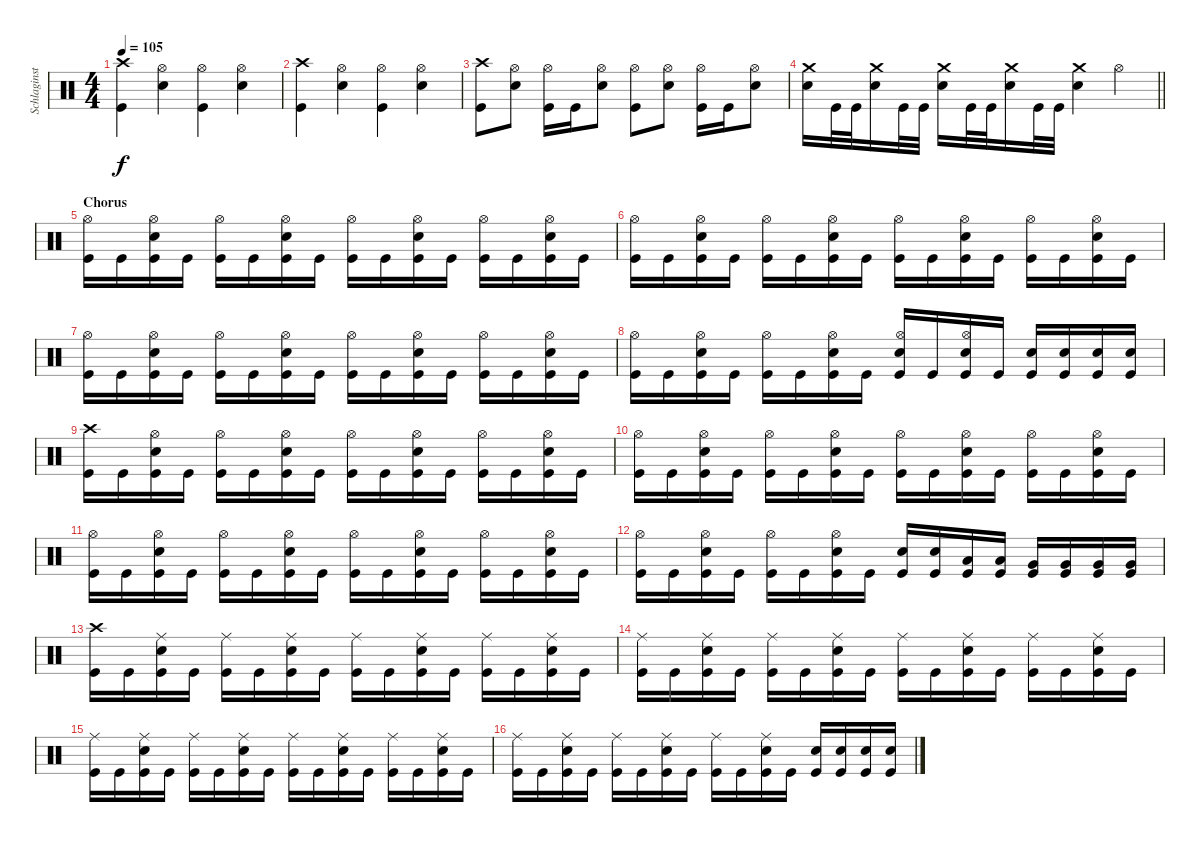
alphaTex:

\track ("Schlaginstrumente - Auswahl" "Schlaginst") {instrument percussion}
\staff {score}
\articulation defaults
\ts (4 4)
\tempo 105
\clef neutral
\ks c
("Kick (hit)" "Crash high (hit)").4{dy f} ("Hi-Hat (open)" "Snare (hit) 2").4 ("Kick (hit)" "Hi-Hat (open)").4 ("Snare (hit) 2" "Hi-Hat (open)").4 |
("Kick (hit)" "Crash high (hit)").4 ("Hi-Hat (open)" "Snare (hit) 2").4 ("Kick (hit)" "Hi-Hat (open)").4 ("Snare (hit) 2" "Hi-Hat (open)").4 |
("Crash high (hit)" "Kick (hit)").8 ("Snare (hit) 2" "Hi-Hat (open)").8 ("Kick (hit)" "Hi-Hat (open)").16 "Kick (hit)".16 ("Hi-Hat (open)" "Snare (hit) 2").8 ("Hi-Hat (open)" "Kick (hit)").8 ("Snare (hit) 2" "Hi-Hat (open)").8 ("Kick (hit)" "Hi-Hat (open)").16 "Kick (hit)".16 ("Hi-Hat (open)" "Snare (hit) 2").8 |
\barLineRight lightlight
("Snare (hit) 2" "Crash medium (hit)").16 "Kick (hit)".32 "Kick (hit)".32 ("Snare (hit) 2" "Crash medium (hit)").16 "Kick (hit)".32 "Kick (hit)".32 ("Snare (hit) 2" "Crash medium (hit)").16 "Kick (hit)".32 "Kick (hit)".32 ("Snare (hit) 2" "Crash medium (hit)").16 "Kick (hit)".32 "Kick (hit)".32 ("Snare (hit) 2" "Crash medium (hit)").4 "Hi-Hat (open)".4 |
\section ("" "Chorus")
("Kick (hit)" "Hi-Hat (open)").16 "Kick (hit)".16 ("Kick (hit)" "Hi-Hat (open)" "Snare (hit) 2").16 "Kick (hit)".16 ("Kick (hit)" "Hi-Hat (open)").16 "Kick (hit)".16 ("Kick (hit)" "Hi-Hat (open)" "Snare (hit) 2").16 "Kick (hit)".16 ("Kick (hit)" "Hi-Hat (open)").16 "Kick (hit)".16 ("Kick (hit)" "Hi-Hat (open)" "Snare (hit) 2").16 "Kick (hit)".16 ("Kick (hit)" "Hi-Hat (open)").16 "Kick (hit)".16 ("Kick (hit)" "Hi-Hat (open)" "Snare (hit) 2").16 "Kick (hit)".16 |
("Kick (hit)" "Hi-Hat (open)").16 "Kick (hit)".16 ("Kick (hit)" "Hi-Hat (open)" "Snare (hit) 2").16 "Kick (hit)".16 ("Kick (hit)" "Hi-Hat (open)").16 "Kick (hit)".16 ("Kick (hit)" "Hi-Hat (open)" "Snare (hit) 2").16 "Kick (hit)".16 ("Kick (hit)" "Hi-Hat (open)").16 "Kick (hit)".16 ("Kick (hit)" "Hi-Hat (open)" "Snare (hit) 2").16 "Kick (hit)".16 ("Kick (hit)" "Hi-Hat (open)").16 "Kick (hit)".16 ("Kick (hit)" "Hi-Hat (open)" "Snare (hit) 2").16 "Kick (hit)".16 |
("Kick (hit)" "Hi-Hat (open)").16 "Kick (hit)".16 ("Kick (hit)" "Hi-Hat (open)" "Snare (hit) 2").16 "Kick (hit)".16 ("Kick (hit)" "Hi-Hat (open)").16 "Kick (hit)".16 ("Kick (hit)" "Hi-Hat (open)" "Snare (hit) 2").16 "Kick (hit)".16 ("Kick (hit)" "Hi-Hat (open)").16 "Kick (hit)".16 ("Kick (hit)" "Hi-Hat (open)" "Snare (hit) 2").16 "Kick (hit)".16 ("Kick (hit)" "Hi-Hat (open)").16 "Kick (hit)".16 ("Kick (hit)" "Hi-Hat (open)" "Snare (hit) 2").16 "Kick (hit)".16 |
("Kick (hit)" "Hi-Hat (open)").16 "Kick (hit)".16 ("Kick (hit)" "Hi-Hat (open)" "Snare (hit) 2").16 "Kick (hit)".16 ("Kick (hit)" "Hi-Hat (open)").16 "Kick (hit)".16 ("Kick (hit)" "Hi-Hat (open)" "Snare (hit) 2").16 "Kick (hit)".16 ("Kick (hit)" "Snare (hit) 2" "Hi-Hat (open)").16 "Kick (hit)".16 ("Kick (hit)" "Snare (hit) 2" "Hi-Hat (open)").16 "Kick (hit)".16 ("Kick (hit)" "Snare (hit) 2").16 ("Kick (hit)" "Snare (hit) 2").16 ("Kick (hit)" "Snare (hit) 2").16 ("Kick (hit)" "Snare (hit) 2").16 |
("Kick (hit)" "Crash high (hit)").16 "Kick (hit)".16 ("Kick (hit)" "Hi-Hat (open)" "Snare (hit) 2").16 "Kick (hit)".16 ("Kick (hit)" "Hi-Hat (open)").16 "Kick (hit)".16 ("Kick (hit)" "Hi-Hat (open)" "Snare (hit) 2").16 "Kick (hit)".16 ("Kick (hit)" "Hi-Hat (open)").16 "Kick (hit)".16 ("Kick (hit)" "Hi-Hat (open)" "Snare (hit) 2").16 "Kick (hit)".16 ("Kick (hit)" "Hi-Hat (open)").16 "Kick (hit)".16 ("Kick (hit)" "Hi-Hat (open)" "Snare (hit) 2").16 "Kick (hit)".16 |
("Kick (hit)" "Hi-Hat (open)").16 "Kick (hit)".16 ("Kick (hit)" "Hi-Hat (open)" "Snare (hit) 2").16 "Kick (hit)".16 ("Kick (hit)" "Hi-Hat (open)").16 "Kick (hit)".16 ("Kick (hit)" "Hi-Hat (open)" "Snare (hit) 2").16 "Kick (hit)".16 ("Kick (hit)" "Hi-Hat (open)").16 "Kick (hit)".16 ("Kick (hit)" "Hi-Hat (open)" "Snare (hit) 2").16 "Kick (hit)".16 ("Kick (hit)" "Hi-Hat (open)").16 "Kick (hit)".16 ("Kick (hit)" "Hi-Hat (open)" "Snare (hit) 2").16 "Kick (hit)".16 |
("Kick (hit)" "Hi-Hat (open)").16 "Kick (hit)".16 ("Kick (hit)" "Hi-Hat (open)" "Snare (hit) 2").16 "Kick (hit)".16 ("Kick (hit)" "Hi-Hat (open)").16 "Kick (hit)".16 ("Kick (hit)" "Hi-Hat (open)" "Snare (hit) 2").16 "Kick (hit)".16 ("Kick (hit)" "Hi-Hat (open)").16 "Kick (hit)".16 ("Kick (hit)" "Hi-Hat (open)" "Snare (hit) 2").16 "Kick (hit)".16 ("Kick (hit)" "Hi-Hat (open)").16 "Kick (hit)".16 ("Kick (hit)" "Hi-Hat (open)" "Snare (hit) 2").16 "Kick (hit)".16 |
("Kick (hit)" "Hi-Hat (open)").16 "Kick (hit)".16 ("Kick (hit)" "Hi-Hat (open)" "Snare (hit) 2").16 "Kick (hit)".16 ("Kick (hit)" "Hi-Hat (open)").16 "Kick (hit)".16 ("Kick (hit)" "Hi-Hat (open)" "Snare (hit) 2").16 "Kick (hit)".16 ("Kick (hit)" "Snare (hit) 2").16 ("Kick (hit)" "Snare (hit) 2").16 ("Kick (hit)" "Low Tom (hit)").16 ("Kick (hit)" "Low Tom (hit)").16 ("Kick (hit)" "Very Low Tom (hit)").16 ("Kick (hit)" "Very Low Tom (hit)").16 ("Kick (hit)" "Very Low Tom (hit)").16 ("Kick (hit)" "Very Low Tom (hit)").16 |
("Kick (hit)" "Crash high (hit)").16 "Kick (hit)".16 ("Kick (hit)" "Ride (middle)" "Snare (hit) 2").16 "Kick (hit)".16 ("Kick (hit)" "Ride (middle)").16 "Kick (hit)".16 ("Kick (hit)" "Ride (middle)" "Snare (hit) 2").16 "Kick (hit)".16 ("Kick (hit)" "Ride (middle)").16 "Kick (hit)".16 ("Kick (hit)" "Ride (middle)" "Snare (hit) 2").16 "Kick (hit)".16 ("Kick (hit)" "Ride (middle)").16 "Kick (hit)".16 ("Kick (hit)" "Ride (middle)" "Snare (hit) 2").16 "Kick (hit)".16 |
("Kick (hit)" "Ride (middle)").16 "Kick (hit)".16 ("Kick (hit)" "Ride (middle)" "Snare (hit) 2").16 "Kick (hit)".16 ("Kick (hit)" "Ride (middle)").16 "Kick (hit)".16 ("Kick (hit)" "Ride (middle)" "Snare (hit) 2").16 "Kick (hit)".16 ("Kick (hit)" "Ride (middle)").16 "Kick (hit)".16 ("Kick (hit)" "Ride (middle)" "Snare (hit) 2").16 "Kick (hit)".16 ("Kick (hit)" "Ride (middle)").16 "Kick (hit)".16 ("Kick (hit)" "Ride (middle)" "Snare (hit) 2").16 "Kick (hit)".16 |
("Kick (hit)" "Ride (middle)").16 "Kick (hit)".16 ("Kick (hit)" "Ride (middle)" "Snare (hit) 2").16 "Kick (hit)".16 ("Kick (hit)" "Ride (middle)").16 "Kick (hit)".16 ("Kick (hit)" "Ride (middle)" "Snare (hit) 2").16 "Kick (hit)".16 ("Kick (hit)" "Ride (middle)").16 "Kick (hit)".16 ("Kick (hit)" "Ride (middle)" "Snare (hit) 2").16 "Kick (hit)".16 ("Kick (hit)" "Ride (middle)").16 "Kick (hit)".16 ("Kick (hit)" "Ride (middle)" "Snare (hit) 2").16 "Kick (hit)".16 |
("Kick (hit)" "Ride (middle)").16 "Kick (hit)".16 ("Kick (hit)" "Ride (middle)" "Snare (hit) 2").16 "Kick (hit)".16 ("Kick (hit)" "Ride (middle)").16 "Kick (hit)".16 ("Kick (hit)" "Ride (middle)" "Snare (hit) 2").16 "Kick (hit)".16 ("Kick (hit)" "Ride (middle)").16 "Kick (hit)".16 ("Kick (hit)" "Ride (middle)" "Snare (hit) 2").16 "Kick (hit)".16 ("Kick (hit)" "Snare (hit) 2").16 ("Kick (hit)" "Snare (hit) 2").16 ("Kick (hit)" "Snare (hit) 2").16 ("Kick (hit)" "Snare (hit) 2").16
